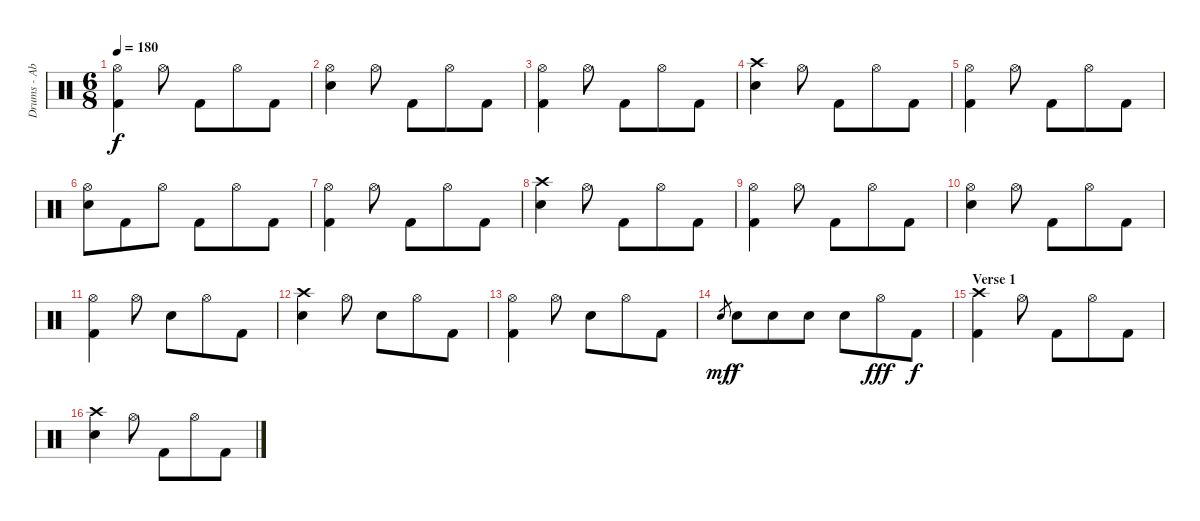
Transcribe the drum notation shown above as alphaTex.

\track ("Drums - Abe Cunningham" "Drums - Ab") {instrument percussion}
\staff {score}
\articulation defaults
\ts (6 8)
\tempo 180
\clef neutral
\ks c
("Hi-Hat (open)" "Kick (hit) 2").4{dy f} "Hi-Hat (open)".8 "Kick (hit) 2".8 "Hi-Hat (open)".8 "Kick (hit) 2".8 |
("Hi-Hat (open)" "Electric Snare (hit)").4 "Hi-Hat (open)".8 "Kick (hit) 2".8 "Hi-Hat (open)".8 "Kick (hit) 2".8 |
("Hi-Hat (open)" "Kick (hit) 2").4 "Hi-Hat (open)".8 "Kick (hit) 2".8 "Hi-Hat (open)".8 "Kick (hit) 2".8 |
("Crash high (hit)" "Electric Snare (hit)").4 "Hi-Hat (open)".8 "Kick (hit) 2".8 "Hi-Hat (open)".8 "Kick (hit) 2".8 |
("Hi-Hat (open)" "Kick (hit) 2").4 "Hi-Hat (open)".8 "Kick (hit) 2".8 "Hi-Hat (open)".8 "Kick (hit) 2".8 |
("Hi-Hat (open)" "Electric Snare (hit)").8 "Kick (hit) 2".8 "Hi-Hat (open)".8 "Kick (hit) 2".8 "Hi-Hat (open)".8 "Kick (hit) 2".8 |
("Hi-Hat (open)" "Kick (hit) 2").4 "Hi-Hat (open)".8 "Kick (hit) 2".8 "Hi-Hat (open)".8 "Kick (hit) 2".8 |
("Crash high (hit)" "Electric Snare (hit)").4 "Hi-Hat (open)".8 "Kick (hit) 2".8 "Hi-Hat (open)".8 "Kick (hit) 2".8 |
("Hi-Hat (open)" "Kick (hit) 2").4 "Hi-Hat (open)".8 "Kick (hit) 2".8 "Hi-Hat (open)".8 "Kick (hit) 2".8 |
("Hi-Hat (open)" "Electric Snare (hit)").4 "Hi-Hat (open)".8 "Kick (hit) 2".8 "Hi-Hat (open)".8 "Kick (hit) 2".8 |
("Hi-Hat (open)" "Kick (hit) 2").4 "Hi-Hat (open)".8 "Electric Snare (hit)".8 "Hi-Hat (open)".8 "Kick (hit) 2".8 |
("Crash high (hit)" "Electric Snare (hit)").4 "Hi-Hat (open)".8 "Electric Snare (hit)".8 "Hi-Hat (open)".8 "Kick (hit) 2".8 |
("Hi-Hat (open)" "Kick (hit) 2").4 "Hi-Hat (open)".8 "Electric Snare (hit)".8 "Hi-Hat (open)".8 "Kick (hit) 2".8 |
"Electric Snare (hit)".8{gr dy mf} "Electric Snare (hit)".8{dy f} "Electric Snare (hit)".8 "Electric Snare (hit)".8 "Electric Snare (hit)".8 "Hi-Hat (open)".8{dy fff} "Kick (hit) 2".8{dy f} |
\section ("" "Verse 1")
("Crash high (hit)" "Kick (hit) 2").4 "Hi-Hat (open)".8 "Kick (hit) 2".8 "Hi-Hat (open)".8 "Kick (hit) 2".8 |
("Crash high (hit)" "Electric Snare (hit)").4 "Hi-Hat (open)".8 "Kick (hit) 2".8 "Hi-Hat (open)".8 "Kick (hit) 2".8
